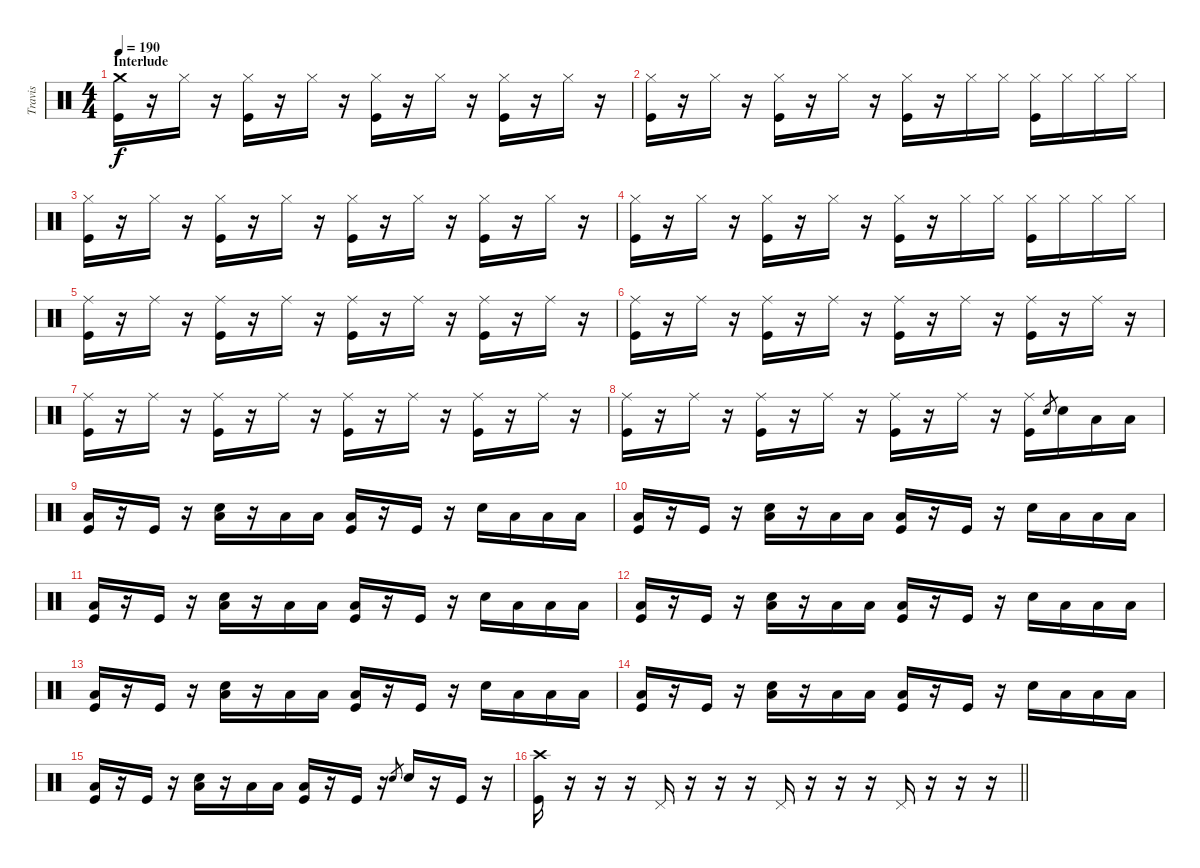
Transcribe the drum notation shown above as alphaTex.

\track ("Travis" "Travis") {instrument percussion}
\staff {score}
\articulation defaults
\ts (4 4)
\section ("" "Interlude")
\tempo 190
\clef neutral
\ks c
("Crash medium (hit)" "Kick (hit)").16{dy f} r.16 "Hi-Hat (closed)".16 r.16 ("Hi-Hat (closed)" "Kick (hit)").16 r.16 "Hi-Hat (closed)".16 r.16 ("Hi-Hat (closed)" "Kick (hit)").16 r.16 "Hi-Hat (closed)".16 r.16 ("Hi-Hat (closed)" "Kick (hit)").16 r.16 "Hi-Hat (closed)".16 r.16 |
("Hi-Hat (closed)" "Kick (hit)").16 r.16 "Hi-Hat (closed)".16 r.16 ("Hi-Hat (closed)" "Kick (hit)").16 r.16 "Hi-Hat (closed)".16 r.16 ("Hi-Hat (closed)" "Kick (hit)").16 r.16 "Hi-Hat (closed)".16 "Hi-Hat (closed)".16 ("Hi-Hat (closed)" "Kick (hit)").16 "Hi-Hat (closed)".16 "Hi-Hat (closed)".16 "Hi-Hat (closed)".16 |
("Hi-Hat (closed)" "Kick (hit)").16 r.16 "Hi-Hat (closed)".16 r.16 ("Hi-Hat (closed)" "Kick (hit)").16 r.16 "Hi-Hat (closed)".16 r.16 ("Hi-Hat (closed)" "Kick (hit)").16 r.16 "Hi-Hat (closed)".16 r.16 ("Hi-Hat (closed)" "Kick (hit)").16 r.16 "Hi-Hat (closed)".16 r.16 |
("Hi-Hat (closed)" "Kick (hit)").16 r.16 "Hi-Hat (closed)".16 r.16 ("Hi-Hat (closed)" "Kick (hit)").16 r.16 "Hi-Hat (closed)".16 r.16 ("Hi-Hat (closed)" "Kick (hit)").16 r.16 "Hi-Hat (closed)".16 "Hi-Hat (closed)".16 ("Hi-Hat (closed)" "Kick (hit)").16 "Hi-Hat (closed)".16 "Hi-Hat (closed)".16 "Hi-Hat (closed)".16 |
("Ride (middle)" "Kick (hit)").16 r.16 "Ride (middle)".16 r.16 ("Ride (middle)" "Kick (hit)").16 r.16 "Ride (middle)".16 r.16 ("Ride (middle)" "Kick (hit)").16 r.16 "Ride (middle)".16 r.16 ("Ride (middle)" "Kick (hit)").16 r.16 "Ride (middle)".16 r.16 |
("Ride (middle)" "Kick (hit)").16 r.16 "Ride (middle)".16 r.16 ("Ride (middle)" "Kick (hit)").16 r.16 "Ride (middle)".16 r.16 ("Ride (middle)" "Kick (hit)").16 r.16 "Ride (middle)".16 r.16 ("Ride (middle)" "Kick (hit)").16 r.16 "Ride (middle)".16 r.16 |
("Ride (middle)" "Kick (hit)").16 r.16 "Ride (middle)".16 r.16 ("Ride (middle)" "Kick (hit)").16 r.16 "Ride (middle)".16 r.16 ("Ride (middle)" "Kick (hit)").16 r.16 "Ride (middle)".16 r.16 ("Ride (middle)" "Kick (hit)").16 r.16 "Ride (middle)".16 r.16 |
("Ride (middle)" "Kick (hit)").16 r.16 "Ride (middle)".16 r.16 ("Ride (middle)" "Kick (hit)").16 r.16 "Ride (middle)".16 r.16 ("Ride (middle)" "Kick (hit)").16 r.16 "Ride (middle)".16 r.16 ("Ride (middle)" "Kick (hit)").16 "Snare (hit)".8{gr} "Snare (hit) 2".16 "Low Tom (hit)".16 "Low Tom (hit)".16 |
("Low Floor Tom (hit)" "Kick (hit)").16 r.16 "Kick (hit)".16 r.16 ("Snare (hit) 2" "Low Floor Tom (hit)").16 r.16 "Low Tom (hit)".16 "Low Tom (hit)".16 ("Low Floor Tom (hit)" "Kick (hit)").16 r.16 "Kick (hit)".16 r.16 "Snare (hit) 2".16 "Low Tom (hit)".16 "Low Floor Tom (hit)".16 "Low Floor Tom (hit)".16 |
("Low Floor Tom (hit)" "Kick (hit)").16 r.16 "Kick (hit)".16 r.16 ("Snare (hit) 2" "Low Floor Tom (hit)").16 r.16 "Low Tom (hit)".16 "Low Tom (hit)".16 ("Low Floor Tom (hit)" "Kick (hit)").16 r.16 "Kick (hit)".16 r.16 "Snare (hit) 2".16 "Low Tom (hit)".16 "Low Floor Tom (hit)".16 "Low Floor Tom (hit)".16 |
("Low Floor Tom (hit)" "Kick (hit)").16 r.16 "Kick (hit)".16 r.16 ("Snare (hit) 2" "Low Floor Tom (hit)").16 r.16 "Low Tom (hit)".16 "Low Tom (hit)".16 ("Low Floor Tom (hit)" "Kick (hit)").16 r.16 "Kick (hit)".16 r.16 "Snare (hit) 2".16 "Low Tom (hit)".16 "Low Floor Tom (hit)".16 "Low Floor Tom (hit)".16 |
("Low Floor Tom (hit)" "Kick (hit)").16 r.16 "Kick (hit)".16 r.16 ("Snare (hit) 2" "Low Floor Tom (hit)").16 r.16 "Low Tom (hit)".16 "Low Tom (hit)".16 ("Low Floor Tom (hit)" "Kick (hit)").16 r.16 "Kick (hit)".16 r.16 "Snare (hit) 2".16 "Low Tom (hit)".16 "Low Floor Tom (hit)".16 "Low Floor Tom (hit)".16 |
("Low Floor Tom (hit)" "Kick (hit)").16 r.16 "Kick (hit)".16 r.16 ("Snare (hit) 2" "Low Floor Tom (hit)").16 r.16 "Low Tom (hit)".16 "Low Tom (hit)".16 ("Low Floor Tom (hit)" "Kick (hit)").16 r.16 "Kick (hit)".16 r.16 "Snare (hit) 2".16 "Low Tom (hit)".16 "Low Floor Tom (hit)".16 "Low Floor Tom (hit)".16 |
("Low Floor Tom (hit)" "Kick (hit)").16 r.16 "Kick (hit)".16 r.16 ("Snare (hit) 2" "Low Floor Tom (hit)").16 r.16 "Low Tom (hit)".16 "Low Tom (hit)".16 ("Low Floor Tom (hit)" "Kick (hit)").16 r.16 "Kick (hit)".16 r.16 "Snare (hit) 2".16 "Low Tom (hit)".16 "Low Floor Tom (hit)".16 "Low Floor Tom (hit)".16 |
("Low Floor Tom (hit)" "Kick (hit)").16 r.16 "Kick (hit)".16 r.16 ("Snare (hit) 2" "Low Floor Tom (hit)").16 r.16 "Low Tom (hit)".16 "Low Tom (hit)".16 ("Low Floor Tom (hit)" "Kick (hit)").16 r.16 "Kick (hit)".16 r.16 "Snare (hit)".8{gr} "Snare (hit) 2".16 r.16 "Kick (hit)".16 r.16 |
\barLineRight lightlight
("Crash high (hit)" "Kick (hit)").16 r.16 r.16 r.16 "Pedal Hi-Hat (hit)".16 r.16 r.16 r.16 "Pedal Hi-Hat (hit)".16 r.16 r.16 r.16 "Pedal Hi-Hat (hit)".16 r.16 r.16 r.16
